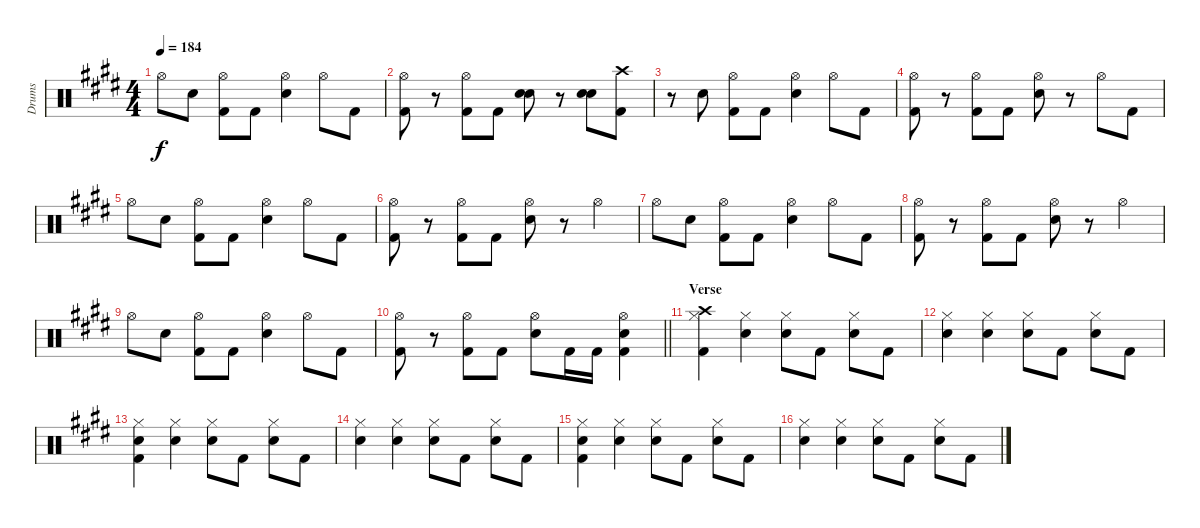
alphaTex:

\track ("Drums" "Drums") {instrument percussion}
\staff {score}
\articulation defaults
\ts (4 4)
\tempo 184
\clef neutral
\ks c#minor "Hi-Hat (open)".8{dy f} "Snare (hit) 2".8
("Hi-Hat (open)" "Kick (hit) 2").8 "Kick (hit) 2".8 ("Hi-Hat (open)" "Snare (hit) 2").4 "Hi-Hat (open)".8 "Kick (hit) 2".8 |
("Hi-Hat (open)" "Kick (hit) 2").8 r.8 ("Hi-Hat (open)" "Kick (hit) 2").8 "Kick (hit) 2".8 ("Electric Snare (hit)" "Snare (hit) 2").8 r.8 ("Electric Snare (hit)" "Snare (hit) 2").8 ("Crash high (hit)" "Kick (hit) 2").8 |
r.8 "Snare (hit) 2".8 ("Hi-Hat (open)" "Kick (hit) 2").8 "Kick (hit) 2".8 ("Hi-Hat (open)" "Snare (hit) 2").4 "Hi-Hat (open)".8 "Kick (hit) 2".8 |
("Hi-Hat (open)" "Kick (hit) 2").8 r.8 ("Hi-Hat (open)" "Kick (hit) 2").8 "Kick (hit) 2".8 ("Hi-Hat (open)" "Snare (hit) 2").8 r.8 "Hi-Hat (open)".8 "Kick (hit) 2".8 |
"Hi-Hat (open)".8 "Snare (hit) 2".8 ("Hi-Hat (open)" "Kick (hit) 2").8 "Kick (hit) 2".8 ("Hi-Hat (open)" "Snare (hit) 2").4 "Hi-Hat (open)".8 "Kick (hit) 2".8 |
("Hi-Hat (open)" "Kick (hit) 2").8 r.8 ("Hi-Hat (open)" "Kick (hit) 2").8 "Kick (hit) 2".8 ("Hi-Hat (open)" "Snare (hit) 2").8 r.8 "Hi-Hat (open)".4 |
"Hi-Hat (open)".8 "Snare (hit) 2".8 ("Hi-Hat (open)" "Kick (hit) 2").8 "Kick (hit) 2".8 ("Hi-Hat (open)" "Snare (hit) 2").4 "Hi-Hat (open)".8 "Kick (hit) 2".8 |
("Hi-Hat (open)" "Kick (hit) 2").8 r.8 ("Hi-Hat (open)" "Kick (hit) 2").8 "Kick (hit) 2".8 ("Hi-Hat (open)" "Snare (hit) 2").8 r.8 "Hi-Hat (open)".4 |
"Hi-Hat (open)".8 "Snare (hit) 2".8 ("Hi-Hat (open)" "Kick (hit) 2").8 "Kick (hit) 2".8 ("Hi-Hat (open)" "Snare (hit) 2").4 "Hi-Hat (open)".8 "Kick (hit) 2".8 |
\barLineRight lightlight
("Hi-Hat (open)" "Kick (hit) 2").8 r.8 ("Hi-Hat (open)" "Kick (hit) 2").8 "Kick (hit) 2".8 ("Hi-Hat (open)" "Snare (hit) 2").8 "Kick (hit) 2".16 "Kick (hit) 2".16 ("Hi-Hat (open)" "Snare (hit) 2" "Kick (hit) 2").4 |
\section ("" "Verse")
("Crash high (hit)" "Hi-Hat (closed)" "Kick (hit) 2").4 ("Hi-Hat (closed)" "Snare (hit) 2").4 ("Hi-Hat (closed)" "Snare (hit) 2").8 "Kick (hit) 2".8 ("Hi-Hat (closed)" "Snare (hit) 2").8 "Kick (hit) 2".8 |
("Hi-Hat (closed)" "Snare (hit) 2").4 ("Hi-Hat (closed)" "Snare (hit) 2").4 ("Hi-Hat (closed)" "Snare (hit) 2").8 "Kick (hit) 2".8 ("Hi-Hat (closed)" "Snare (hit) 2").8 "Kick (hit) 2".8 |
("Hi-Hat (closed)" "Snare (hit) 2" "Kick (hit) 2").4 ("Hi-Hat (closed)" "Snare (hit) 2").4 ("Hi-Hat (closed)" "Snare (hit) 2").8 "Kick (hit) 2".8 ("Hi-Hat (closed)" "Snare (hit) 2").8 "Kick (hit) 2".8 |
("Hi-Hat (closed)" "Snare (hit) 2").4 ("Hi-Hat (closed)" "Snare (hit) 2").4 ("Hi-Hat (closed)" "Snare (hit) 2").8 "Kick (hit) 2".8 ("Hi-Hat (closed)" "Snare (hit) 2").8 "Kick (hit) 2".8 |
("Hi-Hat (closed)" "Snare (hit) 2" "Kick (hit) 2").4 ("Hi-Hat (closed)" "Snare (hit) 2").4 ("Hi-Hat (closed)" "Snare (hit) 2").8 "Kick (hit) 2".8 ("Hi-Hat (closed)" "Snare (hit) 2").8 "Kick (hit) 2".8 |
("Hi-Hat (closed)" "Snare (hit) 2").4 ("Hi-Hat (closed)" "Snare (hit) 2").4 ("Hi-Hat (closed)" "Snare (hit) 2").8 "Kick (hit) 2".8 ("Hi-Hat (closed)" "Snare (hit) 2").8 "Kick (hit) 2".8
